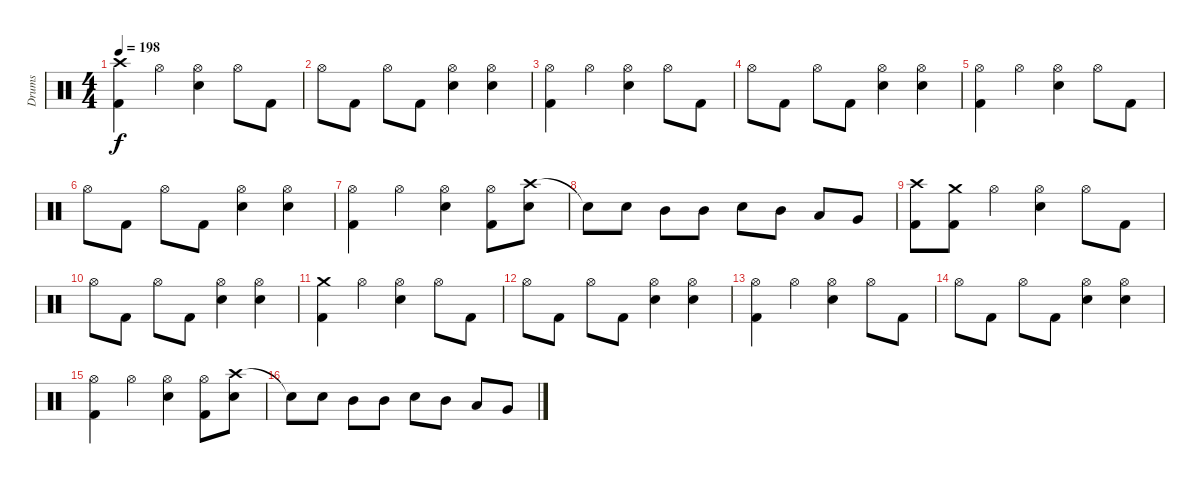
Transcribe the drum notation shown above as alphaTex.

\track ("Drums" "Drums") {instrument percussion}
\staff {score}
\articulation defaults
\ts (4 4)
\tempo 198
\clef neutral
\ks c
("Crash high (hit)" "Kick (hit) 2").4{dy f} "Hi-Hat (open)".4 ("Hi-Hat (open)" "Snare (hit) 2").4 "Hi-Hat (open)".8 "Kick (hit) 2".8 |
"Hi-Hat (open)".8 "Kick (hit) 2".8 "Hi-Hat (open)".8 "Kick (hit) 2".8 ("Hi-Hat (open)" "Snare (hit) 2").4 ("Hi-Hat (open)" "Snare (hit) 2").4 |
("Hi-Hat (open)" "Kick (hit) 2").4 "Hi-Hat (open)".4 ("Hi-Hat (open)" "Snare (hit) 2").4 "Hi-Hat (open)".8 "Kick (hit) 2".8 |
"Hi-Hat (open)".8 "Kick (hit) 2".8 "Hi-Hat (open)".8 "Kick (hit) 2".8 ("Hi-Hat (open)" "Snare (hit) 2").4 ("Hi-Hat (open)" "Snare (hit) 2").4 |
("Hi-Hat (open)" "Kick (hit) 2").4 "Hi-Hat (open)".4 ("Hi-Hat (open)" "Snare (hit) 2").4 "Hi-Hat (open)".8 "Kick (hit) 2".8 |
"Hi-Hat (open)".8 "Kick (hit) 2".8 "Hi-Hat (open)".8 "Kick (hit) 2".8 ("Hi-Hat (open)" "Snare (hit) 2").4 ("Hi-Hat (open)" "Snare (hit) 2").4 |
("Hi-Hat (open)" "Kick (hit) 2").4 "Hi-Hat (open)".4 ("Hi-Hat (open)" "Snare (hit) 2").4 ("Hi-Hat (open)" "Kick (hit) 2").8 ("Crash high (hit)" "Snare (hit) 2").8 |
"Snare (hit)"{t}.8 "Snare (hit) 2".8 "Mid Tom (hit)".8 "Mid Tom (hit)".8 "Snare (hit) 2".8 "Mid Tom (hit)".8 "Low Tom (hit)".8 "Very Low Tom (hit)".8 |
("Crash high (hit)" "Kick (hit) 2").8 ("Crash medium (hit)" "Kick (hit) 2").8 "Hi-Hat (open)".4 ("Hi-Hat (open)" "Snare (hit) 2").4 "Hi-Hat (open)".8 "Kick (hit) 2".8 |
"Hi-Hat (open)".8 "Kick (hit) 2".8 "Hi-Hat (open)".8 "Kick (hit) 2".8 ("Hi-Hat (open)" "Snare (hit) 2").4 ("Hi-Hat (open)" "Snare (hit) 2").4 |
("Crash medium (hit)" "Kick (hit) 2").4 "Hi-Hat (open)".4 ("Hi-Hat (open)" "Snare (hit) 2").4 "Hi-Hat (open)".8 "Kick (hit) 2".8 |
"Hi-Hat (open)".8 "Kick (hit) 2".8 "Hi-Hat (open)".8 "Kick (hit) 2".8 ("Hi-Hat (open)" "Snare (hit) 2").4 ("Hi-Hat (open)" "Snare (hit) 2").4 |
("Hi-Hat (open)" "Kick (hit) 2").4 "Hi-Hat (open)".4 ("Hi-Hat (open)" "Snare (hit) 2").4 "Hi-Hat (open)".8 "Kick (hit) 2".8 |
"Hi-Hat (open)".8 "Kick (hit) 2".8 "Hi-Hat (open)".8 "Kick (hit) 2".8 ("Hi-Hat (open)" "Snare (hit) 2").4 ("Hi-Hat (open)" "Snare (hit) 2").4 |
("Hi-Hat (open)" "Kick (hit) 2").4 "Hi-Hat (open)".4 ("Hi-Hat (open)" "Snare (hit) 2").4 ("Hi-Hat (open)" "Kick (hit) 2").8 ("Crash high (hit)" "Snare (hit) 2").8 |
"Snare (hit)"{t}.8 "Snare (hit) 2".8 "Mid Tom (hit)".8 "Mid Tom (hit)".8 "Snare (hit) 2".8 "Mid Tom (hit)".8 "Low Tom (hit)".8 "Very Low Tom (hit)".8
